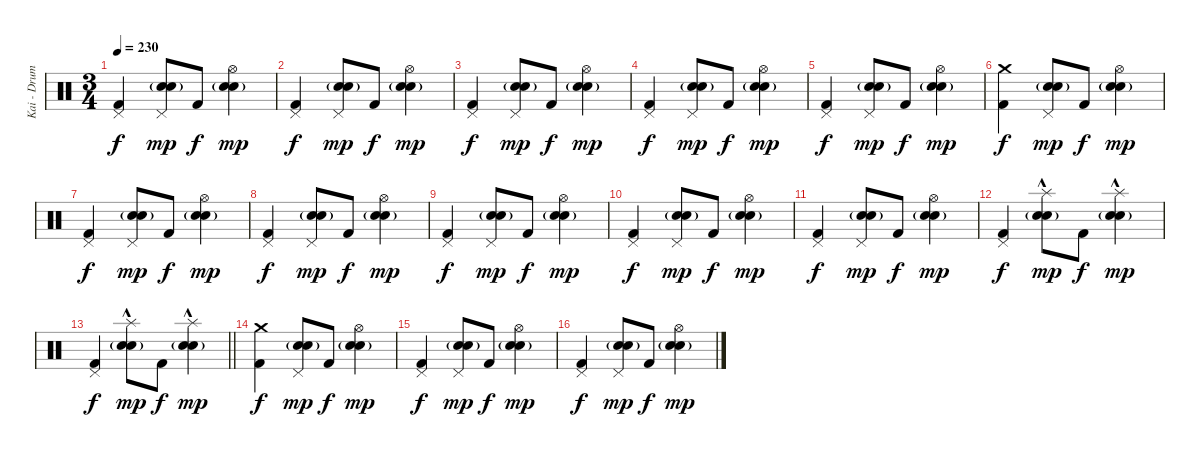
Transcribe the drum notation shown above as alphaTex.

\track ("Kai - Drums" "Kai - Drum") {instrument percussion}
\staff {score}
\articulation defaults
\ts (3 4)
\tempo 230
\clef neutral
\ks c
("Pedal Hi-Hat (hit)" "Kick (hit) 2").4{dy f} ("Pedal Hi-Hat (hit)" "Electric Snare (hit)" "Snare (hit) 2"{g}).8{dy mp} "Kick (hit) 2".8{dy f} ("Hi-Hat (open)" "Electric Snare (hit)" "Snare (hit) 2"{g}).4{dy mp} |
("Pedal Hi-Hat (hit)" "Kick (hit) 2").4{dy f} ("Pedal Hi-Hat (hit)" "Electric Snare (hit)" "Snare (hit) 2"{g}).8{dy mp} "Kick (hit) 2".8{dy f} ("Hi-Hat (open)" "Electric Snare (hit)" "Snare (hit) 2"{g}).4{dy mp} |
("Pedal Hi-Hat (hit)" "Kick (hit) 2").4{dy f} ("Pedal Hi-Hat (hit)" "Electric Snare (hit)" "Snare (hit) 2"{g}).8{dy mp} "Kick (hit) 2".8{dy f} ("Hi-Hat (open)" "Electric Snare (hit)" "Snare (hit) 2"{g}).4{dy mp} |
("Pedal Hi-Hat (hit)" "Kick (hit) 2").4{dy f} ("Pedal Hi-Hat (hit)" "Electric Snare (hit)" "Snare (hit) 2"{g}).8{dy mp} "Kick (hit) 2".8{dy f} ("Hi-Hat (open)" "Electric Snare (hit)" "Snare (hit) 2"{g}).4{dy mp} |
("Pedal Hi-Hat (hit)" "Kick (hit) 2").4{dy f} ("Pedal Hi-Hat (hit)" "Electric Snare (hit)" "Snare (hit) 2"{g}).8{dy mp} "Kick (hit) 2".8{dy f} ("Hi-Hat (open)" "Electric Snare (hit)" "Snare (hit) 2"{g}).4{dy mp} |
("Crash medium (hit)" "Kick (hit) 2").4{dy f} ("Pedal Hi-Hat (hit)" "Electric Snare (hit)" "Snare (hit) 2"{g}).8{dy mp} "Kick (hit) 2".8{dy f} ("Hi-Hat (open)" "Electric Snare (hit)" "Snare (hit) 2"{g}).4{dy mp} |
("Pedal Hi-Hat (hit)" "Kick (hit) 2").4{dy f} ("Pedal Hi-Hat (hit)" "Electric Snare (hit)" "Snare (hit) 2"{g}).8{dy mp} "Kick (hit) 2".8{dy f} ("Hi-Hat (open)" "Electric Snare (hit)" "Snare (hit) 2"{g}).4{dy mp} |
("Pedal Hi-Hat (hit)" "Kick (hit) 2").4{dy f} ("Pedal Hi-Hat (hit)" "Electric Snare (hit)" "Snare (hit) 2"{g}).8{dy mp} "Kick (hit) 2".8{dy f} ("Hi-Hat (open)" "Electric Snare (hit)" "Snare (hit) 2"{g}).4{dy mp} |
("Pedal Hi-Hat (hit)" "Kick (hit) 2").4{dy f} ("Pedal Hi-Hat (hit)" "Electric Snare (hit)" "Snare (hit) 2"{g}).8{dy mp} "Kick (hit) 2".8{dy f} ("Hi-Hat (open)" "Electric Snare (hit)" "Snare (hit) 2"{g}).4{dy mp} |
("Pedal Hi-Hat (hit)" "Kick (hit) 2").4{dy f} ("Pedal Hi-Hat (hit)" "Electric Snare (hit)" "Snare (hit) 2"{g}).8{dy mp} "Kick (hit) 2".8{dy f} ("Hi-Hat (open)" "Electric Snare (hit)" "Snare (hit) 2"{g}).4{dy mp} |
("Pedal Hi-Hat (hit)" "Kick (hit) 2").4{dy f} ("Pedal Hi-Hat (hit)" "Electric Snare (hit)" "Snare (hit) 2"{g}).8{dy mp} "Kick (hit) 2".8{dy f} ("Hi-Hat (open)" "Electric Snare (hit)" "Snare (hit) 2"{g}).4{dy mp} |
("Pedal Hi-Hat (hit)" "Kick (hit) 2").4{dy f} ("Splash (hit)"{hac} "Electric Snare (hit)" "Snare (hit) 2"{g}).8{dy mp} "Kick (hit) 2".8{dy f} ("Splash (hit)"{hac} "Electric Snare (hit)" "Snare (hit) 2"{g}).4{dy mp} |
\barLineRight lightlight
("Pedal Hi-Hat (hit)" "Kick (hit) 2").4{dy f} ("Splash (hit)"{hac} "Electric Snare (hit)" "Snare (hit) 2"{g}).8{dy mp} "Kick (hit) 2".8{dy f} ("Splash (hit)"{hac} "Electric Snare (hit)" "Snare (hit) 2"{g}).4{dy mp} |
\section ("" "")
("Crash medium (hit)" "Kick (hit) 2").4{dy f} ("Pedal Hi-Hat (hit)" "Electric Snare (hit)" "Snare (hit) 2"{g}).8{dy mp} "Kick (hit) 2".8{dy f} ("Hi-Hat (open)" "Electric Snare (hit)" "Snare (hit) 2"{g}).4{dy mp} |
("Pedal Hi-Hat (hit)" "Kick (hit) 2").4{dy f} ("Pedal Hi-Hat (hit)" "Electric Snare (hit)" "Snare (hit) 2"{g}).8{dy mp} "Kick (hit) 2".8{dy f} ("Hi-Hat (open)" "Electric Snare (hit)" "Snare (hit) 2"{g}).4{dy mp} |
("Pedal Hi-Hat (hit)" "Kick (hit) 2").4{dy f} ("Pedal Hi-Hat (hit)" "Electric Snare (hit)" "Snare (hit) 2"{g}).8{dy mp} "Kick (hit) 2".8{dy f} ("Hi-Hat (open)" "Electric Snare (hit)" "Snare (hit) 2"{g}).4{dy mp}
